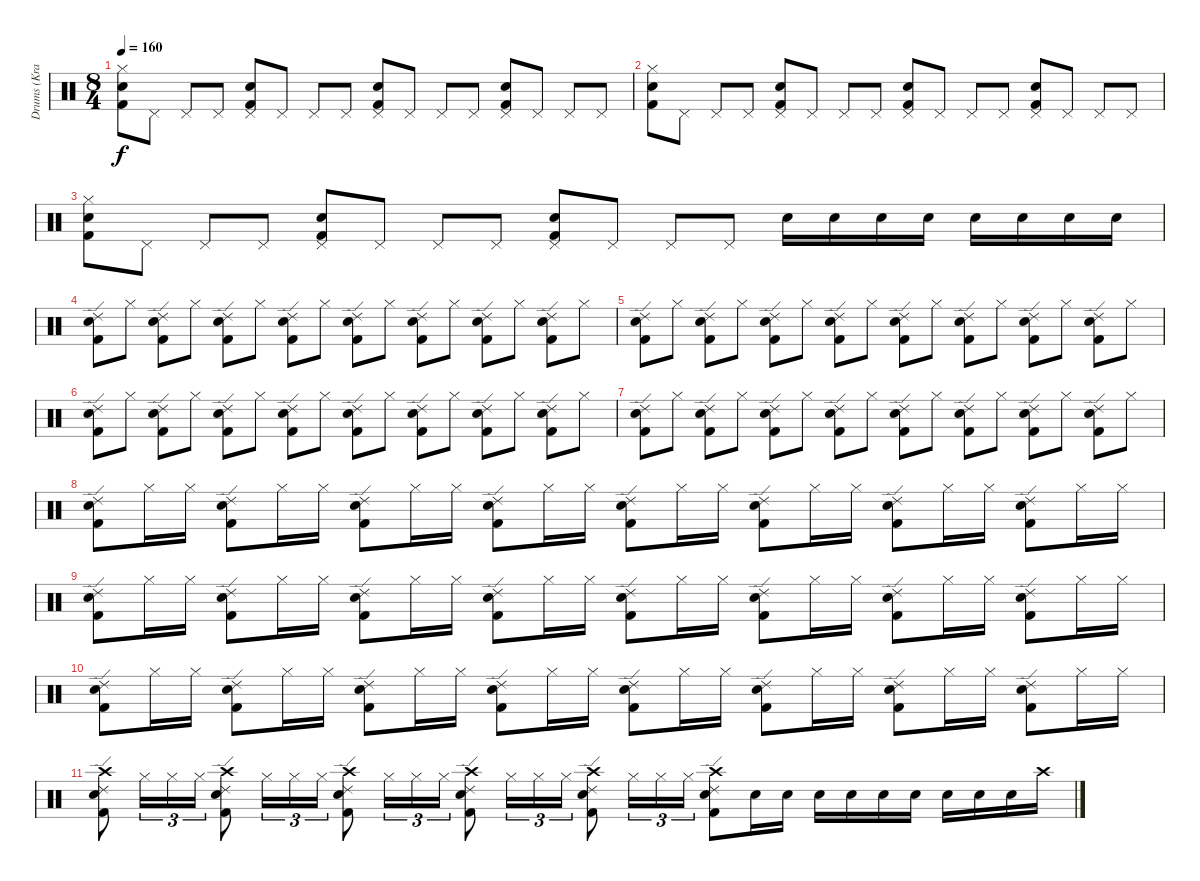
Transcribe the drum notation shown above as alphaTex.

\track ("Drums (Kram)" "Drums (Kra") {instrument percussion}
\staff {score}
\articulation defaults
\ts (8 4)
\tempo 160
\clef neutral
\ks c
("Kick (hit) 2" "Electric Snare (hit)" "Hi-Hat (closed)").8{dy f} "Pedal Hi-Hat (hit)".8 "Pedal Hi-Hat (hit)".8 "Pedal Hi-Hat (hit)".8 ("Electric Snare (hit)" "Kick (hit) 2" "Pedal Hi-Hat (hit)").8 "Pedal Hi-Hat (hit)".8 "Pedal Hi-Hat (hit)".8 "Pedal Hi-Hat (hit)".8 ("Electric Snare (hit)" "Kick (hit) 2" "Pedal Hi-Hat (hit)").8 "Pedal Hi-Hat (hit)".8 "Pedal Hi-Hat (hit)".8 "Pedal Hi-Hat (hit)".8 ("Electric Snare (hit)" "Kick (hit) 2" "Pedal Hi-Hat (hit)").8 "Pedal Hi-Hat (hit)".8 "Pedal Hi-Hat (hit)".8 "Pedal Hi-Hat (hit)".8 |
("Kick (hit) 2" "Electric Snare (hit)" "Hi-Hat (closed)").8 "Pedal Hi-Hat (hit)".8 "Pedal Hi-Hat (hit)".8 "Pedal Hi-Hat (hit)".8 ("Electric Snare (hit)" "Kick (hit) 2" "Pedal Hi-Hat (hit)").8 "Pedal Hi-Hat (hit)".8 "Pedal Hi-Hat (hit)".8 "Pedal Hi-Hat (hit)".8 ("Electric Snare (hit)" "Kick (hit) 2" "Pedal Hi-Hat (hit)").8 "Pedal Hi-Hat (hit)".8 "Pedal Hi-Hat (hit)".8 "Pedal Hi-Hat (hit)".8 ("Electric Snare (hit)" "Kick (hit) 2" "Pedal Hi-Hat (hit)").8 "Pedal Hi-Hat (hit)".8 "Pedal Hi-Hat (hit)".8 "Pedal Hi-Hat (hit)".8 |
("Kick (hit) 2" "Electric Snare (hit)" "Hi-Hat (closed)").8 "Pedal Hi-Hat (hit)".8 "Pedal Hi-Hat (hit)".8 "Pedal Hi-Hat (hit)".8 ("Electric Snare (hit)" "Kick (hit) 2" "Pedal Hi-Hat (hit)").8 "Pedal Hi-Hat (hit)".8 "Pedal Hi-Hat (hit)".8 "Pedal Hi-Hat (hit)".8 ("Electric Snare (hit)" "Kick (hit) 2" "Pedal Hi-Hat (hit)").8 "Pedal Hi-Hat (hit)".8 "Pedal Hi-Hat (hit)".8 "Pedal Hi-Hat (hit)".8 "Electric Snare (hit)".16 "Electric Snare (hit)".16 "Electric Snare (hit)".16 "Electric Snare (hit)".16 "Electric Snare (hit)".16 "Electric Snare (hit)".16 "Electric Snare (hit)".16 "Electric Snare (hit)".16 |
("Kick (hit) 2" "Ride (edge) 2" "Electric Snare (hit)").8 "Hi-Hat (closed)".8 ("Kick (hit) 2" "Ride (edge) 2" "Electric Snare (hit)").8 "Hi-Hat (closed)".8 ("Kick (hit) 2" "Ride (edge) 2" "Electric Snare (hit)").8 "Hi-Hat (closed)".8 ("Kick (hit) 2" "Ride (edge) 2" "Electric Snare (hit)").8 "Hi-Hat (closed)".8 ("Kick (hit) 2" "Ride (edge) 2" "Electric Snare (hit)").8 "Hi-Hat (closed)".8 ("Kick (hit) 2" "Ride (edge) 2" "Electric Snare (hit)").8 "Hi-Hat (closed)".8 ("Kick (hit) 2" "Ride (edge) 2" "Electric Snare (hit)").8 "Hi-Hat (closed)".8 ("Kick (hit) 2" "Ride (edge) 2" "Electric Snare (hit)").8 "Hi-Hat (closed)".8 |
("Kick (hit) 2" "Ride (edge) 2" "Electric Snare (hit)").8 "Hi-Hat (closed)".8 ("Kick (hit) 2" "Ride (edge) 2" "Electric Snare (hit)").8 "Hi-Hat (closed)".8 ("Kick (hit) 2" "Ride (edge) 2" "Electric Snare (hit)").8 "Hi-Hat (closed)".8 ("Kick (hit) 2" "Ride (edge) 2" "Electric Snare (hit)").8 "Hi-Hat (closed)".8 ("Kick (hit) 2" "Ride (edge) 2" "Electric Snare (hit)").8 "Hi-Hat (closed)".8 ("Kick (hit) 2" "Ride (edge) 2" "Electric Snare (hit)").8 "Hi-Hat (closed)".8 ("Kick (hit) 2" "Ride (edge) 2" "Electric Snare (hit)").8 "Hi-Hat (closed)".8 ("Kick (hit) 2" "Ride (edge) 2" "Electric Snare (hit)").8 "Hi-Hat (closed)".8 |
("Kick (hit) 2" "Ride (edge) 2" "Electric Snare (hit)").8 "Hi-Hat (closed)".8 ("Kick (hit) 2" "Ride (edge) 2" "Electric Snare (hit)").8 "Hi-Hat (closed)".8 ("Kick (hit) 2" "Ride (edge) 2" "Electric Snare (hit)").8 "Hi-Hat (closed)".8 ("Kick (hit) 2" "Ride (edge) 2" "Electric Snare (hit)").8 "Hi-Hat (closed)".8 ("Kick (hit) 2" "Ride (edge) 2" "Electric Snare (hit)").8 "Hi-Hat (closed)".8 ("Kick (hit) 2" "Ride (edge) 2" "Electric Snare (hit)").8 "Hi-Hat (closed)".8 ("Kick (hit) 2" "Ride (edge) 2" "Electric Snare (hit)").8 "Hi-Hat (closed)".8 ("Kick (hit) 2" "Ride (edge) 2" "Electric Snare (hit)").8 "Hi-Hat (closed)".8 |
("Kick (hit) 2" "Ride (edge) 2" "Electric Snare (hit)").8 "Hi-Hat (closed)".8 ("Kick (hit) 2" "Ride (edge) 2" "Electric Snare (hit)").8 "Hi-Hat (closed)".8 ("Kick (hit) 2" "Ride (edge) 2" "Electric Snare (hit)").8 "Hi-Hat (closed)".8 ("Kick (hit) 2" "Ride (edge) 2" "Electric Snare (hit)").8 "Hi-Hat (closed)".8 ("Kick (hit) 2" "Ride (edge) 2" "Electric Snare (hit)").8 "Hi-Hat (closed)".8 ("Kick (hit) 2" "Ride (edge) 2" "Electric Snare (hit)").8 "Hi-Hat (closed)".8 ("Kick (hit) 2" "Ride (edge) 2" "Electric Snare (hit)").8 "Hi-Hat (closed)".8 ("Kick (hit) 2" "Ride (edge) 2" "Electric Snare (hit)").8 "Hi-Hat (closed)".8 |
("Kick (hit) 2" "Ride (edge) 2" "Electric Snare (hit)").8 "Hi-Hat (closed)".16 "Hi-Hat (closed)".16 ("Kick (hit) 2" "Ride (edge) 2" "Electric Snare (hit)").8 "Hi-Hat (closed)".16 "Hi-Hat (closed)".16 ("Kick (hit) 2" "Ride (edge) 2" "Electric Snare (hit)").8 "Hi-Hat (closed)".16 "Hi-Hat (closed)".16 ("Kick (hit) 2" "Ride (edge) 2" "Electric Snare (hit)").8 "Hi-Hat (closed)".16 "Hi-Hat (closed)".16 ("Kick (hit) 2" "Ride (edge) 2" "Electric Snare (hit)").8 "Hi-Hat (closed)".16 "Hi-Hat (closed)".16 ("Kick (hit) 2" "Ride (edge) 2" "Electric Snare (hit)").8 "Hi-Hat (closed)".16 "Hi-Hat (closed)".16 ("Kick (hit) 2" "Ride (edge) 2" "Electric Snare (hit)").8 "Hi-Hat (closed)".16 "Hi-Hat (closed)".16 ("Kick (hit) 2" "Ride (edge) 2" "Electric Snare (hit)").8 "Hi-Hat (closed)".16 "Hi-Hat (closed)".16 |
("Kick (hit) 2" "Ride (edge) 2" "Electric Snare (hit)").8 "Hi-Hat (closed)".16 "Hi-Hat (closed)".16 ("Kick (hit) 2" "Ride (edge) 2" "Electric Snare (hit)").8 "Hi-Hat (closed)".16 "Hi-Hat (closed)".16 ("Kick (hit) 2" "Ride (edge) 2" "Electric Snare (hit)").8 "Hi-Hat (closed)".16 "Hi-Hat (closed)".16 ("Kick (hit) 2" "Ride (edge) 2" "Electric Snare (hit)").8 "Hi-Hat (closed)".16 "Hi-Hat (closed)".16 ("Kick (hit) 2" "Ride (edge) 2" "Electric Snare (hit)").8 "Hi-Hat (closed)".16 "Hi-Hat (closed)".16 ("Kick (hit) 2" "Ride (edge) 2" "Electric Snare (hit)").8 "Hi-Hat (closed)".16 "Hi-Hat (closed)".16 ("Kick (hit) 2" "Ride (edge) 2" "Electric Snare (hit)").8 "Hi-Hat (closed)".16 "Hi-Hat (closed)".16 ("Kick (hit) 2" "Ride (edge) 2" "Electric Snare (hit)").8 "Hi-Hat (closed)".16 "Hi-Hat (closed)".16 |
("Kick (hit) 2" "Ride (edge) 2" "Electric Snare (hit)").8 "Hi-Hat (closed)".16 "Hi-Hat (closed)".16 ("Kick (hit) 2" "Ride (edge) 2" "Electric Snare (hit)").8 "Hi-Hat (closed)".16 "Hi-Hat (closed)".16 ("Kick (hit) 2" "Ride (edge) 2" "Electric Snare (hit)").8 "Hi-Hat (closed)".16 "Hi-Hat (closed)".16 ("Kick (hit) 2" "Ride (edge) 2" "Electric Snare (hit)").8 "Hi-Hat (closed)".16 "Hi-Hat (closed)".16 ("Kick (hit) 2" "Ride (edge) 2" "Electric Snare (hit)").8 "Hi-Hat (closed)".16 "Hi-Hat (closed)".16 ("Kick (hit) 2" "Ride (edge) 2" "Electric Snare (hit)").8 "Hi-Hat (closed)".16 "Hi-Hat (closed)".16 ("Kick (hit) 2" "Ride (edge) 2" "Electric Snare (hit)").8 "Hi-Hat (closed)".16 "Hi-Hat (closed)".16 ("Kick (hit) 2" "Ride (edge) 2" "Electric Snare (hit)").8 "Hi-Hat (closed)".16 "Hi-Hat (closed)".16 |
("Crash high (hit)" "Kick (hit) 2" "Ride (edge) 2" "Electric Snare (hit)").8{volume 12} "Hi-Hat (closed)".16{tu (3 2)} "Hi-Hat (closed)".16{tu (3 2)} "Hi-Hat (closed)".16{tu (3 2)} ("Crash high (hit)" "Kick (hit) 2" "Ride (edge) 2" "Electric Snare (hit)").8 "Hi-Hat (closed)".16{tu (3 2)} "Hi-Hat (closed)".16{tu (3 2)} "Hi-Hat (closed)".16{tu (3 2)} ("Crash high (hit)" "Kick (hit) 2" "Ride (edge) 2" "Electric Snare (hit)").8 "Hi-Hat (closed)".16{tu (3 2)} "Hi-Hat (closed)".16{tu (3 2)} "Hi-Hat (closed)".16{tu (3 2)} ("Crash high (hit)" "Kick (hit) 2" "Ride (edge) 2" "Electric Snare (hit)").8 "Hi-Hat (closed)".16{tu (3 2)} "Hi-Hat (closed)".16{tu (3 2)} "Hi-Hat (closed)".16{tu (3 2)} ("Crash high (hit)" "Kick (hit) 2" "Ride (edge) 2" "Electric Snare (hit)").8 "Hi-Hat (closed)".16{tu (3 2)} "Hi-Hat (closed)".16{tu (3 2)} "Hi-Hat (closed)".16{tu (3 2)} ("Crash high (hit)" "Kick (hit) 2" "Ride (edge) 2" "Electric Snare (hit)").8 "Electric Snare (hit)".16 "Electric Snare (hit)".16 "Electric Snare (hit)".16 "Electric Snare (hit)".16 "Electric Snare (hit)".16 "Electric Snare (hit)".16 "Electric Snare (hit)".16 "Electric Snare (hit)".16 "Electric Snare (hit)".16 "Crash high (hit)".16
